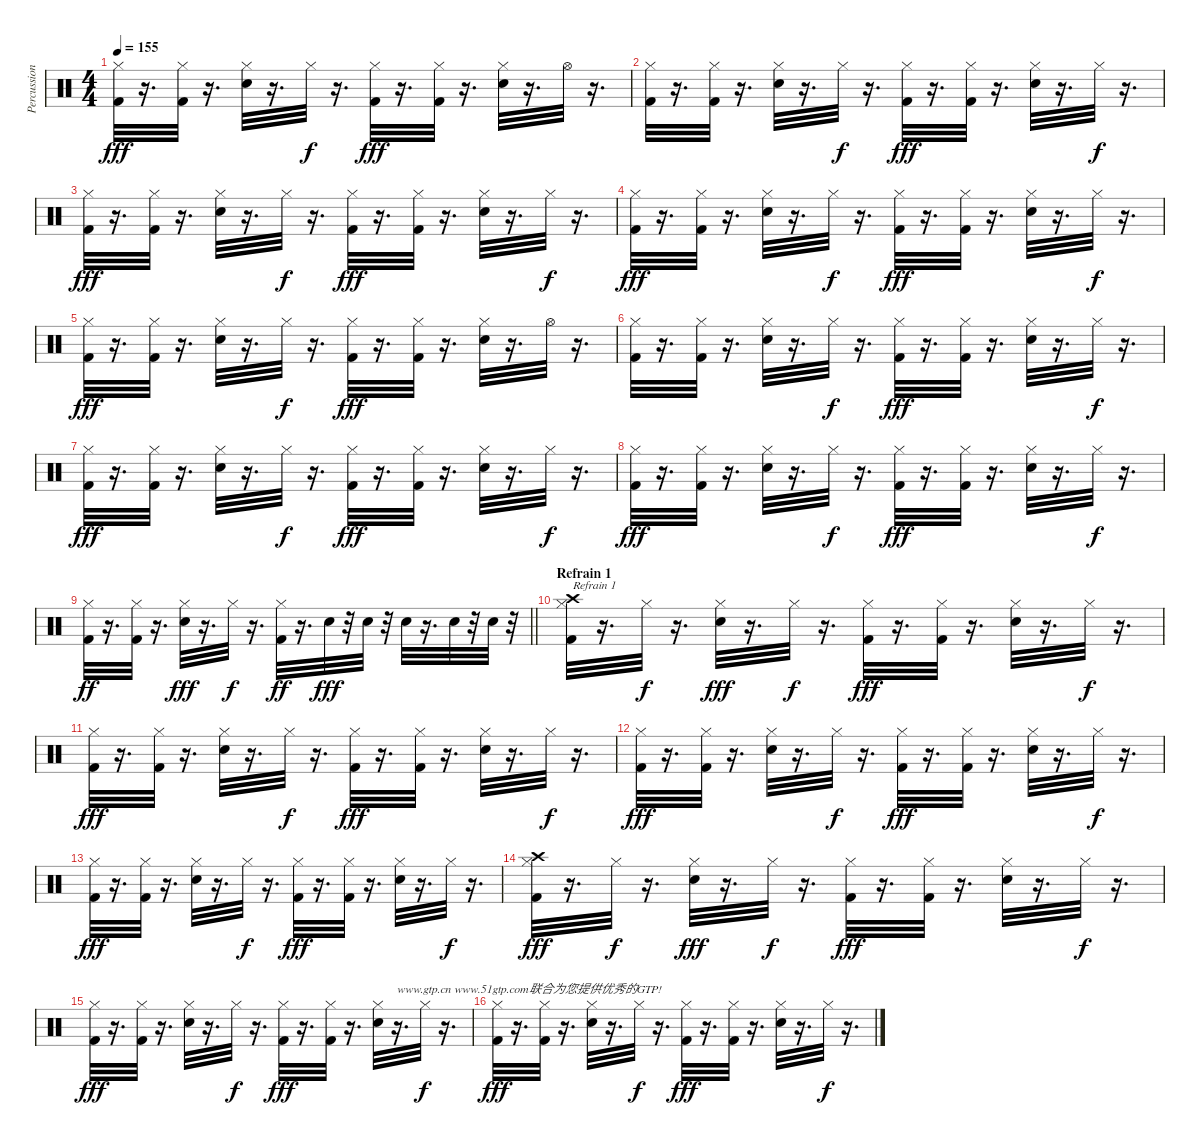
\track ("Percussions" "Percussion") {instrument percussion}
\staff {score}
\articulation defaults
\ts (4 4)
\tempo 155
\clef neutral
\ks c
("Hi-Hat (closed)" "Kick (hit) 2").32{dy fff} r.16{d} ("Kick (hit) 2" "Hi-Hat (closed)").32 r.16{d} ("Hi-Hat (closed)" "Snare (hit) 2").32 r.16{d} "Hi-Hat (closed)".32{dy f} r.16{d} ("Hi-Hat (closed)" "Kick (hit) 2").32{dy fff} r.16{d} ("Hi-Hat (closed)" "Kick (hit) 2").32 r.16{d} ("Hi-Hat (closed)" "Snare (hit) 2").32 r.16{d} "Hi-Hat (open)".32 r.16{d} |
("Hi-Hat (closed)" "Kick (hit) 2").32 r.16{d} ("Kick (hit) 2" "Hi-Hat (closed)").32 r.16{d} ("Hi-Hat (closed)" "Snare (hit) 2").32 r.16{d} "Hi-Hat (closed)".32{dy f} r.16{d} ("Hi-Hat (closed)" "Kick (hit) 2").32{dy fff} r.16{d} ("Hi-Hat (closed)" "Kick (hit) 2").32 r.16{d} ("Hi-Hat (closed)" "Snare (hit) 2").32 r.16{d} "Hi-Hat (closed)".32{dy f} r.16{d} |
("Hi-Hat (closed)" "Kick (hit) 2").32{dy fff} r.16{d} ("Kick (hit) 2" "Hi-Hat (closed)").32 r.16{d} ("Hi-Hat (closed)" "Snare (hit) 2").32 r.16{d} "Hi-Hat (closed)".32{dy f} r.16{d} ("Hi-Hat (closed)" "Kick (hit) 2").32{dy fff} r.16{d} ("Hi-Hat (closed)" "Kick (hit) 2").32 r.16{d} ("Hi-Hat (closed)" "Snare (hit) 2").32 r.16{d} "Hi-Hat (closed)".32{dy f} r.16{d} |
("Hi-Hat (closed)" "Kick (hit) 2").32{dy fff} r.16{d} ("Kick (hit) 2" "Hi-Hat (closed)").32 r.16{d} ("Hi-Hat (closed)" "Snare (hit) 2").32 r.16{d} "Hi-Hat (closed)".32{dy f} r.16{d} ("Hi-Hat (closed)" "Kick (hit) 2").32{dy fff} r.16{d} ("Hi-Hat (closed)" "Kick (hit) 2").32 r.16{d} ("Hi-Hat (closed)" "Snare (hit) 2").32 r.16{d} "Hi-Hat (closed)".32{dy f} r.16{d} |
("Hi-Hat (closed)" "Kick (hit) 2").32{dy fff} r.16{d} ("Kick (hit) 2" "Hi-Hat (closed)").32 r.16{d} ("Hi-Hat (closed)" "Snare (hit) 2").32 r.16{d} "Hi-Hat (closed)".32{dy f} r.16{d} ("Hi-Hat (closed)" "Kick (hit) 2").32{dy fff} r.16{d} ("Hi-Hat (closed)" "Kick (hit) 2").32 r.16{d} ("Hi-Hat (closed)" "Snare (hit) 2").32 r.16{d} "Hi-Hat (open)".32 r.16{d} |
("Hi-Hat (closed)" "Kick (hit) 2").32 r.16{d} ("Kick (hit) 2" "Hi-Hat (closed)").32 r.16{d} ("Hi-Hat (closed)" "Snare (hit) 2").32 r.16{d} "Hi-Hat (closed)".32{dy f} r.16{d} ("Hi-Hat (closed)" "Kick (hit) 2").32{dy fff} r.16{d} ("Hi-Hat (closed)" "Kick (hit) 2").32 r.16{d} ("Hi-Hat (closed)" "Snare (hit) 2").32 r.16{d} "Hi-Hat (closed)".32{dy f} r.16{d} |
("Hi-Hat (closed)" "Kick (hit) 2").32{dy fff} r.16{d} ("Kick (hit) 2" "Hi-Hat (closed)").32 r.16{d} ("Hi-Hat (closed)" "Snare (hit) 2").32 r.16{d} "Hi-Hat (closed)".32{dy f} r.16{d} ("Hi-Hat (closed)" "Kick (hit) 2").32{dy fff} r.16{d} ("Hi-Hat (closed)" "Kick (hit) 2").32 r.16{d} ("Hi-Hat (closed)" "Snare (hit) 2").32 r.16{d} "Hi-Hat (closed)".32{dy f} r.16{d} |
("Hi-Hat (closed)" "Kick (hit) 2").32{dy fff} r.16{d} ("Kick (hit) 2" "Hi-Hat (closed)").32 r.16{d} ("Hi-Hat (closed)" "Snare (hit) 2").32 r.16{d} "Hi-Hat (closed)".32{dy f} r.16{d} ("Hi-Hat (closed)" "Kick (hit) 2").32{dy fff} r.16{d} ("Hi-Hat (closed)" "Kick (hit) 2").32 r.16{d} ("Hi-Hat (closed)" "Snare (hit) 2").32 r.16{d} "Hi-Hat (closed)".32{dy f} r.16{d} |
\barLineRight lightlight
("Hi-Hat (closed)" "Kick (hit) 2").32{dy ff} r.16{d} ("Hi-Hat (closed)" "Kick (hit) 2").32 r.16{d} ("Hi-Hat (closed)" "Snare (hit) 2").32{dy fff} r.16{d} "Hi-Hat (closed)".32{dy f} r.16{d} ("Hi-Hat (closed)" "Kick (hit) 2").32{dy ff} r.16{d} "Snare (hit) 2".32{dy fff} r.32 "Snare (hit) 2".32 r.32 "Snare (hit) 2".32 r.16{d} "Snare (hit) 2".32 r.32 "Snare (hit) 2".32 r.32 |
\section ("" "Refrain 1")
("Crash high (hit)" "Hi-Hat (closed)" "Kick (hit) 2").32{txt "Refrain 1"} r.16{d} "Hi-Hat (closed)".32{dy f} r.16{d} ("Hi-Hat (closed)" "Snare (hit) 2").32{dy fff} r.16{d} "Hi-Hat (closed)".32{dy f} r.16{d} ("Hi-Hat (closed)" "Kick (hit) 2").32{dy fff} r.16{d} ("Hi-Hat (closed)" "Kick (hit) 2").32 r.16{d} ("Hi-Hat (closed)" "Snare (hit) 2").32 r.16{d} "Hi-Hat (closed)".32{dy f} r.16{d} |
("Hi-Hat (closed)" "Kick (hit) 2").32{dy fff} r.16{d} ("Kick (hit) 2" "Hi-Hat (closed)").32 r.16{d} ("Hi-Hat (closed)" "Snare (hit) 2").32 r.16{d} "Hi-Hat (closed)".32{dy f} r.16{d} ("Hi-Hat (closed)" "Kick (hit) 2").32{dy fff} r.16{d} ("Hi-Hat (closed)" "Kick (hit) 2").32 r.16{d} ("Hi-Hat (closed)" "Snare (hit) 2").32 r.16{d} "Hi-Hat (closed)".32{dy f} r.16{d} |
("Hi-Hat (closed)" "Kick (hit) 2").32{dy fff} r.16{d} ("Kick (hit) 2" "Hi-Hat (closed)").32 r.16{d} ("Hi-Hat (closed)" "Snare (hit) 2").32 r.16{d} "Hi-Hat (closed)".32{dy f} r.16{d} ("Hi-Hat (closed)" "Kick (hit) 2").32{dy fff} r.16{d} ("Hi-Hat (closed)" "Kick (hit) 2").32 r.16{d} ("Hi-Hat (closed)" "Snare (hit) 2").32 r.16{d} "Hi-Hat (closed)".32{dy f} r.16{d} |
("Hi-Hat (closed)" "Kick (hit) 2").32{dy fff} r.16{d} ("Kick (hit) 2" "Hi-Hat (closed)").32 r.16{d} ("Hi-Hat (closed)" "Snare (hit) 2").32 r.16{d} "Hi-Hat (closed)".32{dy f} r.16{d} ("Hi-Hat (closed)" "Kick (hit) 2").32{dy fff} r.16{d} ("Hi-Hat (closed)" "Kick (hit) 2").32 r.16{d} ("Hi-Hat (closed)" "Snare (hit) 2").32 r.16{d} "Hi-Hat (closed)".32{dy f} r.16{d} |
("Crash high (hit)" "Hi-Hat (closed)" "Kick (hit) 2").32{dy fff} r.16{d} "Hi-Hat (closed)".32{dy f} r.16{d} ("Hi-Hat (closed)" "Snare (hit) 2").32{dy fff} r.16{d} "Hi-Hat (closed)".32{dy f} r.16{d} ("Hi-Hat (closed)" "Kick (hit) 2").32{dy fff} r.16{d} ("Hi-Hat (closed)" "Kick (hit) 2").32 r.16{d} ("Hi-Hat (closed)" "Snare (hit) 2").32 r.16{d} "Hi-Hat (closed)".32{dy f} r.16{d} |
("Hi-Hat (closed)" "Kick (hit) 2").32{dy fff} r.16{d} ("Kick (hit) 2" "Hi-Hat (closed)").32 r.16{d} ("Hi-Hat (closed)" "Snare (hit) 2").32 r.16{d} "Hi-Hat (closed)".32{dy f} r.16{d} ("Hi-Hat (closed)" "Kick (hit) 2").32{dy fff} r.16{d} ("Hi-Hat (closed)" "Kick (hit) 2").32 r.16{d} ("Hi-Hat (closed)" "Snare (hit) 2").32 r.16{d txt "www.gtp.cn www.51gtp.com联合为您提供优秀的GTP!"} "Hi-Hat (closed)".32{dy f} r.16{d} |
("Hi-Hat (closed)" "Kick (hit) 2").32{dy fff} r.16{d} ("Kick (hit) 2" "Hi-Hat (closed)").32 r.16{d} ("Hi-Hat (closed)" "Snare (hit) 2").32 r.16{d} "Hi-Hat (closed)".32{dy f} r.16{d} ("Hi-Hat (closed)" "Kick (hit) 2").32{dy fff} r.16{d} ("Hi-Hat (closed)" "Kick (hit) 2").32 r.16{d} ("Hi-Hat (closed)" "Snare (hit) 2").32 r.16{d} "Hi-Hat (closed)".32{dy f} r.16{d}
